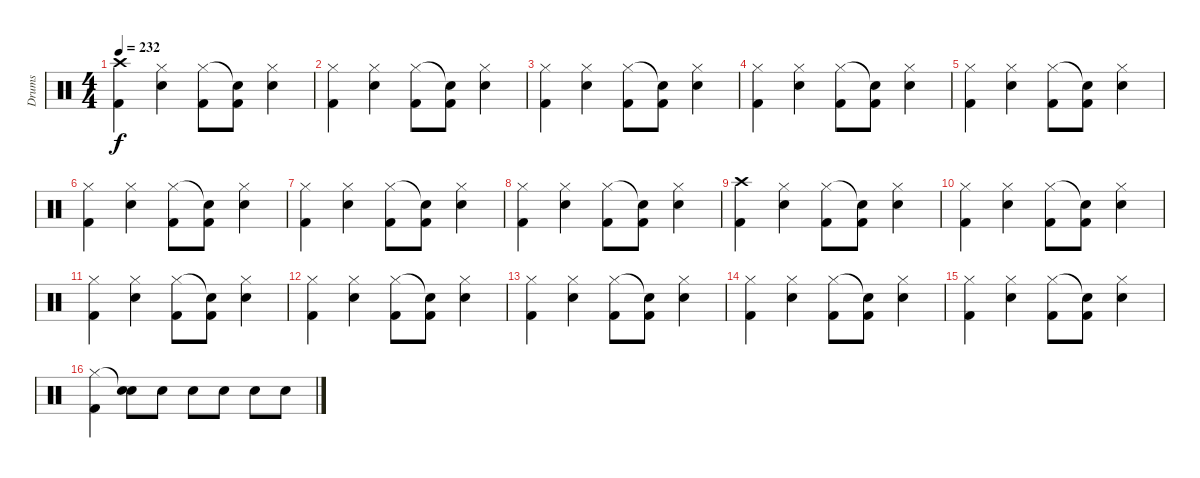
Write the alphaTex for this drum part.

\track ("Drums" "Drums") {instrument percussion}
\staff {score}
\articulation defaults
\ts (4 4)
\tempo 232
\clef neutral
\ks c
("Crash high (hit)" "Kick (hit) 2").4{dy f} ("Hi-Hat (closed)" "Snare (hit) 2").4 ("Hi-Hat (closed)" "Kick (hit) 2").8 ("Snare (hit)"{t} "Kick (hit) 2").8 ("Hi-Hat (closed)" "Snare (hit) 2").4 |
("Hi-Hat (closed)" "Kick (hit) 2").4 ("Hi-Hat (closed)" "Snare (hit) 2").4 ("Hi-Hat (closed)" "Kick (hit) 2").8 ("Snare (hit)"{t} "Kick (hit) 2").8 ("Hi-Hat (closed)" "Snare (hit) 2").4 |
("Hi-Hat (closed)" "Kick (hit) 2").4 ("Hi-Hat (closed)" "Snare (hit) 2").4 ("Hi-Hat (closed)" "Kick (hit) 2").8 ("Snare (hit)"{t} "Kick (hit) 2").8 ("Hi-Hat (closed)" "Snare (hit) 2").4 |
("Hi-Hat (closed)" "Kick (hit) 2").4 ("Hi-Hat (closed)" "Snare (hit) 2").4 ("Hi-Hat (closed)" "Kick (hit) 2").8 ("Snare (hit)"{t} "Kick (hit) 2").8 ("Hi-Hat (closed)" "Snare (hit) 2").4 |
("Hi-Hat (closed)" "Kick (hit) 2").4 ("Hi-Hat (closed)" "Snare (hit) 2").4 ("Hi-Hat (closed)" "Kick (hit) 2").8 ("Snare (hit)"{t} "Kick (hit) 2").8 ("Hi-Hat (closed)" "Snare (hit) 2").4 |
("Hi-Hat (closed)" "Kick (hit) 2").4 ("Hi-Hat (closed)" "Snare (hit) 2").4 ("Hi-Hat (closed)" "Kick (hit) 2").8 ("Snare (hit)"{t} "Kick (hit) 2").8 ("Hi-Hat (closed)" "Snare (hit) 2").4 |
("Hi-Hat (closed)" "Kick (hit) 2").4 ("Hi-Hat (closed)" "Snare (hit) 2").4 ("Hi-Hat (closed)" "Kick (hit) 2").8 ("Snare (hit)"{t} "Kick (hit) 2").8 ("Hi-Hat (closed)" "Snare (hit) 2").4 |
("Hi-Hat (closed)" "Kick (hit) 2").4 ("Hi-Hat (closed)" "Snare (hit) 2").4 ("Hi-Hat (closed)" "Kick (hit) 2").8 ("Snare (hit)"{t} "Kick (hit) 2").8 ("Hi-Hat (closed)" "Snare (hit) 2").4 |
("Crash high (hit)" "Kick (hit) 2").4 ("Hi-Hat (closed)" "Snare (hit) 2").4 ("Hi-Hat (closed)" "Kick (hit) 2").8 ("Snare (hit)"{t} "Kick (hit) 2").8 ("Hi-Hat (closed)" "Snare (hit) 2").4 |
("Hi-Hat (closed)" "Kick (hit) 2").4 ("Hi-Hat (closed)" "Snare (hit) 2").4 ("Hi-Hat (closed)" "Kick (hit) 2").8 ("Snare (hit)"{t} "Kick (hit) 2").8 ("Hi-Hat (closed)" "Snare (hit) 2").4 |
("Hi-Hat (closed)" "Kick (hit) 2").4 ("Hi-Hat (closed)" "Snare (hit) 2").4 ("Hi-Hat (closed)" "Kick (hit) 2").8 ("Snare (hit)"{t} "Kick (hit) 2").8 ("Hi-Hat (closed)" "Snare (hit) 2").4 |
("Hi-Hat (closed)" "Kick (hit) 2").4 ("Hi-Hat (closed)" "Snare (hit) 2").4 ("Hi-Hat (closed)" "Kick (hit) 2").8 ("Snare (hit)"{t} "Kick (hit) 2").8 ("Hi-Hat (closed)" "Snare (hit) 2").4 |
("Hi-Hat (closed)" "Kick (hit) 2").4 ("Hi-Hat (closed)" "Snare (hit) 2").4 ("Hi-Hat (closed)" "Kick (hit) 2").8 ("Snare (hit)"{t} "Kick (hit) 2").8 ("Hi-Hat (closed)" "Snare (hit) 2").4 |
("Hi-Hat (closed)" "Kick (hit) 2").4 ("Hi-Hat (closed)" "Snare (hit) 2").4 ("Hi-Hat (closed)" "Kick (hit) 2").8 ("Snare (hit)"{t} "Kick (hit) 2").8 ("Hi-Hat (closed)" "Snare (hit) 2").4 |
("Hi-Hat (closed)" "Kick (hit) 2").4 ("Hi-Hat (closed)" "Snare (hit) 2").4 ("Hi-Hat (closed)" "Kick (hit) 2").8 ("Snare (hit)"{t} "Kick (hit) 2").8 ("Hi-Hat (closed)" "Snare (hit) 2").4 |
("Hi-Hat (closed)" "Kick (hit) 2").4 ("Snare (hit)"{t} "Snare (hit) 2").8 "Snare (hit) 2".8 "Snare (hit) 2".8 "Snare (hit) 2".8 "Snare (hit) 2".8 "Snare (hit) 2".8
